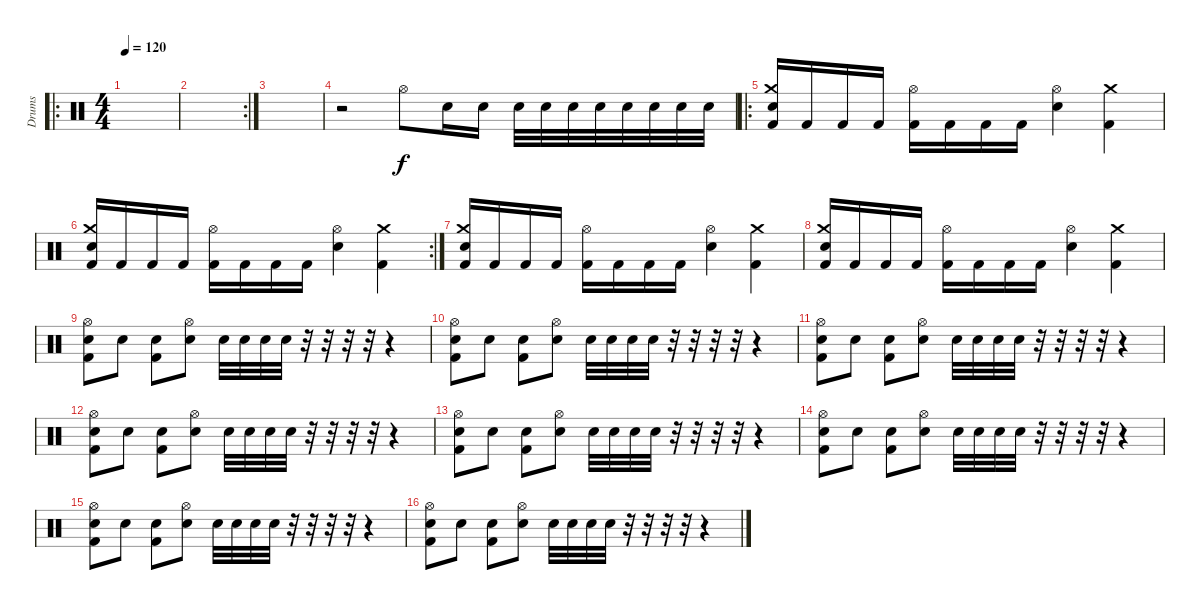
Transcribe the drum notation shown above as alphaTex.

\track ("Drums" "Drums") {instrument percussion}
\staff {score}
\articulation defaults
\ro
\ts (4 4)
\tempo 120
\clef neutral
\ks c
|
\rc 2
|
|
r.2 "Hi-Hat (open)".8 "Electric Snare (hit)".16 "Electric Snare (hit)".16 "Electric Snare (hit)".32 "Electric Snare (hit)".32 "Electric Snare (hit)".32 "Electric Snare (hit)".32 "Electric Snare (hit)".32 "Electric Snare (hit)".32 "Electric Snare (hit)".32 "Electric Snare (hit)".32 |
\ro
("Electric Snare (hit)" "Crash medium (hit)" "Kick (hit) 2").16 "Kick (hit) 2".16 "Kick (hit) 2".16 "Kick (hit) 2".16 ("Hi-Hat (open)" "Kick (hit) 2").16 "Kick (hit) 2".16 "Kick (hit) 2".16 "Kick (hit) 2".16 ("Electric Snare (hit)" "Hi-Hat (open)").4 ("Crash medium (hit)" "Kick (hit) 2").4 |
\rc 2
("Electric Snare (hit)" "Crash medium (hit)" "Kick (hit) 2").16 "Kick (hit) 2".16 "Kick (hit) 2".16 "Kick (hit) 2".16 ("Hi-Hat (open)" "Kick (hit) 2").16 "Kick (hit) 2".16 "Kick (hit) 2".16 "Kick (hit) 2".16 ("Electric Snare (hit)" "Hi-Hat (open)").4 ("Crash medium (hit)" "Kick (hit) 2").4 |
("Electric Snare (hit)" "Crash medium (hit)" "Kick (hit) 2").16 "Kick (hit) 2".16 "Kick (hit) 2".16 "Kick (hit) 2".16 ("Hi-Hat (open)" "Kick (hit) 2").16 "Kick (hit) 2".16 "Kick (hit) 2".16 "Kick (hit) 2".16 ("Electric Snare (hit)" "Hi-Hat (open)").4 ("Crash medium (hit)" "Kick (hit) 2").4 |
("Electric Snare (hit)" "Crash medium (hit)" "Kick (hit) 2").16 "Kick (hit) 2".16 "Kick (hit) 2".16 "Kick (hit) 2".16 ("Hi-Hat (open)" "Kick (hit) 2").16 "Kick (hit) 2".16 "Kick (hit) 2".16 "Kick (hit) 2".16 ("Electric Snare (hit)" "Hi-Hat (open)").4 ("Crash medium (hit)" "Kick (hit) 2").4 |
("Hi-Hat (open)" "Kick (hit) 2" "Electric Snare (hit)").8 "Electric Snare (hit)".8 ("Kick (hit) 2" "Electric Snare (hit)").8 ("Hi-Hat (open)" "Electric Snare (hit)").8 "Electric Snare (hit)".32 "Electric Snare (hit)".32 "Electric Snare (hit)".32 "Electric Snare (hit)".32 r.32 r.32 r.32 r.32 r.4 |
("Hi-Hat (open)" "Kick (hit) 2" "Electric Snare (hit)").8 "Electric Snare (hit)".8 ("Kick (hit) 2" "Electric Snare (hit)").8 ("Hi-Hat (open)" "Electric Snare (hit)").8 "Electric Snare (hit)".32 "Electric Snare (hit)".32 "Electric Snare (hit)".32 "Electric Snare (hit)".32 r.32 r.32 r.32 r.32 r.4 |
("Hi-Hat (open)" "Kick (hit) 2" "Electric Snare (hit)").8 "Electric Snare (hit)".8 ("Kick (hit) 2" "Electric Snare (hit)").8 ("Hi-Hat (open)" "Electric Snare (hit)").8 "Electric Snare (hit)".32 "Electric Snare (hit)".32 "Electric Snare (hit)".32 "Electric Snare (hit)".32 r.32 r.32 r.32 r.32 r.4 |
("Hi-Hat (open)" "Kick (hit) 2" "Electric Snare (hit)").8 "Electric Snare (hit)".8 ("Kick (hit) 2" "Electric Snare (hit)").8 ("Hi-Hat (open)" "Electric Snare (hit)").8 "Electric Snare (hit)".32 "Electric Snare (hit)".32 "Electric Snare (hit)".32 "Electric Snare (hit)".32 r.32 r.32 r.32 r.32 r.4 |
("Hi-Hat (open)" "Kick (hit) 2" "Electric Snare (hit)").8 "Electric Snare (hit)".8 ("Kick (hit) 2" "Electric Snare (hit)").8 ("Hi-Hat (open)" "Electric Snare (hit)").8 "Electric Snare (hit)".32 "Electric Snare (hit)".32 "Electric Snare (hit)".32 "Electric Snare (hit)".32 r.32 r.32 r.32 r.32 r.4 |
("Hi-Hat (open)" "Kick (hit) 2" "Electric Snare (hit)").8 "Electric Snare (hit)".8 ("Kick (hit) 2" "Electric Snare (hit)").8 ("Hi-Hat (open)" "Electric Snare (hit)").8 "Electric Snare (hit)".32 "Electric Snare (hit)".32 "Electric Snare (hit)".32 "Electric Snare (hit)".32 r.32 r.32 r.32 r.32 r.4 |
("Hi-Hat (open)" "Kick (hit) 2" "Electric Snare (hit)").8 "Electric Snare (hit)".8 ("Kick (hit) 2" "Electric Snare (hit)").8 ("Hi-Hat (open)" "Electric Snare (hit)").8 "Electric Snare (hit)".32 "Electric Snare (hit)".32 "Electric Snare (hit)".32 "Electric Snare (hit)".32 r.32 r.32 r.32 r.32 r.4 |
("Hi-Hat (open)" "Kick (hit) 2" "Electric Snare (hit)").8 "Electric Snare (hit)".8 ("Kick (hit) 2" "Electric Snare (hit)").8 ("Hi-Hat (open)" "Electric Snare (hit)").8 "Electric Snare (hit)".32 "Electric Snare (hit)".32 "Electric Snare (hit)".32 "Electric Snare (hit)".32 r.32 r.32 r.32 r.32 r.4
